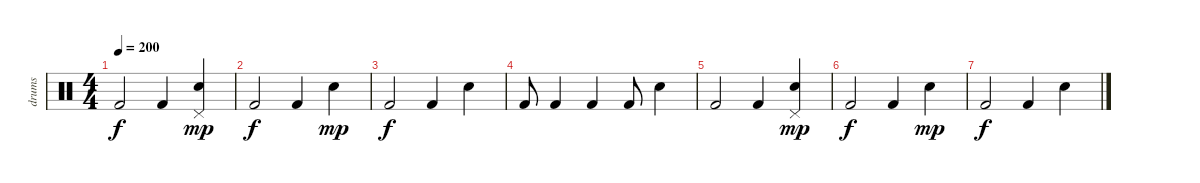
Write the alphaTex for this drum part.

\track ("drums" "drums") {instrument percussion}
\staff {score}
\articulation defaults
\ts (4 4)
\tempo 200
\clef neutral
\ks c "Kick (hit) 2".2{dy f} "Kick (hit) 2".4
("Pedal Hi-Hat (hit)" "Electric Snare (hit)").4{dy mp} |
"Kick (hit) 2".2{dy f} "Kick (hit) 2".4 "Electric Snare (hit)".4{dy mp} |
"Kick (hit) 2".2{dy f} "Kick (hit) 2".4 "Electric Snare (hit)".4 |
"Kick (hit) 2".8 "Kick (hit) 2".4 "Kick (hit) 2".4 "Kick (hit) 2".8 "Electric Snare (hit)".4 |
"Kick (hit) 2".2 "Kick (hit) 2".4 ("Pedal Hi-Hat (hit)" "Electric Snare (hit)").4{dy mp} |
"Kick (hit) 2".2{dy f} "Kick (hit) 2".4 "Electric Snare (hit)".4{dy mp} |
"Kick (hit) 2".2{dy f} "Kick (hit) 2".4 "Electric Snare (hit)".4
